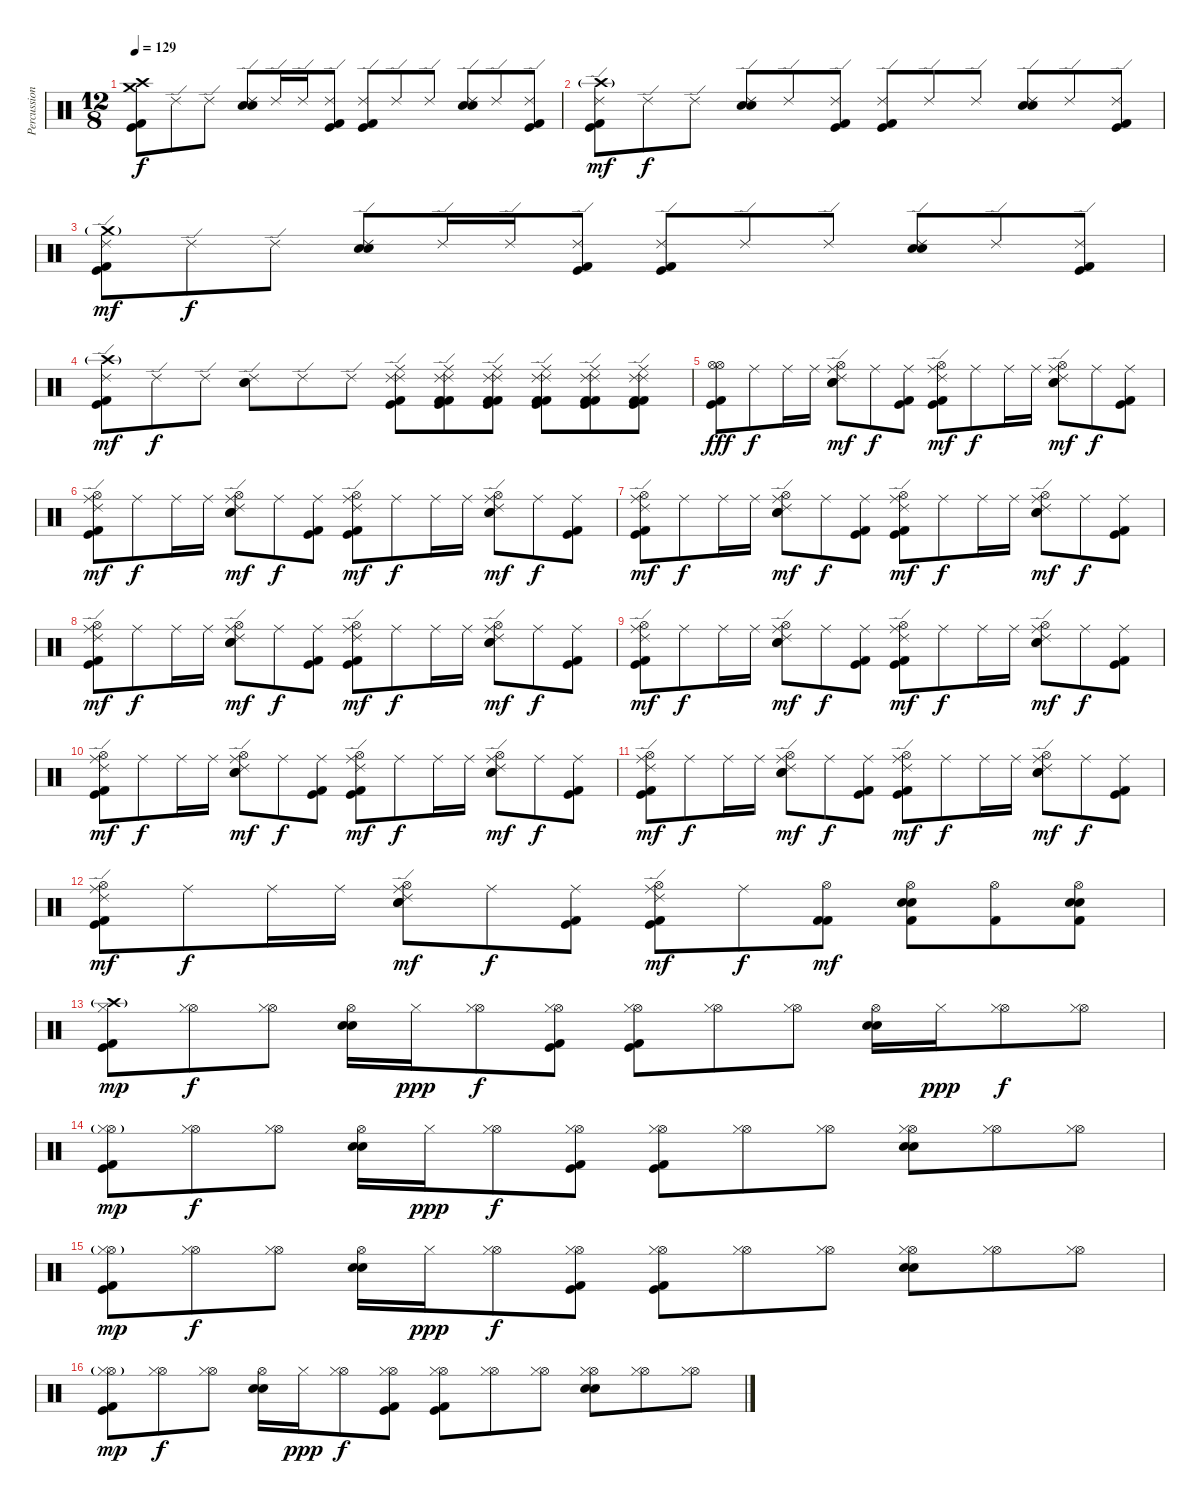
\track ("Percussion" "Percussion") {instrument percussion}
\staff {score}
\articulation defaults
\ts (12 8)
\tempo 129
\clef neutral
\ks c
("Crash high (hit)" "Crash medium (hit)" "Kick (hit)" "Kick (hit) 2").8{dy f} "Ride (edge) 2".8 "Ride (edge) 2".8 ("Ride (edge) 2" "Electric Snare (hit)" "Electric Snare (hit)").8 "Ride (edge) 2".16 "Ride (edge) 2".16 ("Ride (edge) 2" "Kick (hit)" "Kick (hit) 2").8 ("Ride (edge) 2" "Kick (hit)" "Kick (hit) 2").8 "Ride (edge) 2".8 "Ride (edge) 2".8 ("Ride (edge) 2" "Electric Snare (hit)" "Electric Snare (hit)").8 "Ride (edge) 2".8 ("Ride (edge) 2" "Kick (hit)" "Kick (hit) 2").8 |
("Ride (edge) 2" "Crash high (hit)"{g} "Kick (hit)" "Kick (hit) 2").8{dy mf} "Ride (edge) 2".8{dy f} "Ride (edge) 2".8 ("Ride (edge) 2" "Electric Snare (hit)" "Electric Snare (hit)").8 "Ride (edge) 2".8 ("Ride (edge) 2" "Kick (hit)" "Kick (hit) 2").8 ("Ride (edge) 2" "Kick (hit)" "Kick (hit) 2").8 "Ride (edge) 2".8 "Ride (edge) 2".8 ("Ride (edge) 2" "Electric Snare (hit)" "Electric Snare (hit)").8 "Ride (edge) 2".8 ("Ride (edge) 2" "Kick (hit)" "Kick (hit) 2").8 |
("Ride (edge) 2" "Crash medium (hit)"{g} "Kick (hit)" "Kick (hit) 2").8{dy mf} "Ride (edge) 2".8{dy f} "Ride (edge) 2".8 ("Ride (edge) 2" "Electric Snare (hit)" "Electric Snare (hit)").8 "Ride (edge) 2".16 "Ride (edge) 2".16 ("Ride (edge) 2" "Kick (hit)" "Kick (hit) 2").8 ("Ride (edge) 2" "Kick (hit)" "Kick (hit) 2").8 "Ride (edge) 2".8 "Ride (edge) 2".8 ("Ride (edge) 2" "Electric Snare (hit)" "Electric Snare (hit)").8 "Ride (edge) 2".8 ("Ride (edge) 2" "Kick (hit)" "Kick (hit) 2").8 |
("Ride (edge) 2" "Crash high (hit)"{g} "Kick (hit)" "Kick (hit) 2").8{dy mf} "Ride (edge) 2".8{dy f} "Ride (edge) 2".8 ("Ride (edge) 2" "Electric Snare (hit)" "Electric Snare (hit)").8 "Ride (edge) 2".8 "Ride (edge) 2".8 ("Ride (edge) 2" "Ride (edge) 2" "Ride (middle)" "Kick (hit)" "Kick (hit) 2").8 ("Ride (edge) 2" "Ride (edge) 2" "Ride (middle)" "Kick (hit)" "Kick (hit) 2" "Kick (hit) 2").8 ("Ride (edge) 2" "Ride (edge) 2" "Ride (middle)" "Kick (hit)" "Kick (hit) 2" "Kick (hit) 2").8 ("Ride (edge) 2" "Ride (edge) 2" "Ride (middle)" "Kick (hit)" "Kick (hit) 2" "Kick (hit) 2").8 ("Ride (edge) 2" "Ride (edge) 2" "Ride (middle)" "Kick (hit)" "Kick (hit) 2" "Kick (hit) 2").8 ("Ride (edge) 2" "Ride (edge) 2" "Ride (middle)" "Kick (hit)" "Kick (hit) 2" "Kick (hit) 2").8 |
("Hi-Hat (open)" "Hi-Hat (open)" "Kick (hit) 2" "Kick (hit)").8{dy fff} "Ride (middle)".8{dy f} "Ride (middle)".16 "Ride (middle)".16 ("Ride (edge) 2" "Ride (middle)" "Electric Snare (hit)" "Electric Snare (hit)" "Hi-Hat (open)").8{dy mf} "Ride (middle)".8{dy f} ("Ride (middle)" "Kick (hit) 2" "Kick (hit)").8 ("Ride (edge) 2" "Ride (middle)" "Hi-Hat (open)" "Kick (hit) 2" "Kick (hit)").8{dy mf} "Ride (middle)".8{dy f} "Ride (middle)".16 "Ride (middle)".16 ("Ride (edge) 2" "Ride (middle)" "Electric Snare (hit)" "Electric Snare (hit)" "Hi-Hat (open)").8{dy mf} "Ride (middle)".8{dy f} ("Ride (middle)" "Kick (hit) 2" "Kick (hit)").8 |
("Ride (edge) 2" "Ride (middle)" "Hi-Hat (open)" "Kick (hit) 2" "Kick (hit)").8{dy mf} "Ride (middle)".8{dy f} "Ride (middle)".16 "Ride (middle)".16 ("Ride (edge) 2" "Ride (middle)" "Electric Snare (hit)" "Electric Snare (hit)" "Hi-Hat (open)").8{dy mf} "Ride (middle)".8{dy f} ("Ride (middle)" "Kick (hit) 2" "Kick (hit)").8 ("Ride (edge) 2" "Ride (middle)" "Hi-Hat (open)" "Kick (hit) 2" "Kick (hit)").8{dy mf} "Ride (middle)".8{dy f} "Ride (middle)".16 "Ride (middle)".16 ("Ride (edge) 2" "Ride (middle)" "Electric Snare (hit)" "Electric Snare (hit)" "Hi-Hat (open)").8{dy mf} "Ride (middle)".8{dy f} ("Ride (middle)" "Kick (hit) 2" "Kick (hit)").8 |
("Ride (edge) 2" "Ride (middle)" "Hi-Hat (open)" "Kick (hit) 2" "Kick (hit)").8{dy mf} "Ride (middle)".8{dy f} "Ride (middle)".16 "Ride (middle)".16 ("Ride (edge) 2" "Ride (middle)" "Electric Snare (hit)" "Electric Snare (hit)" "Hi-Hat (open)").8{dy mf} "Ride (middle)".8{dy f} ("Ride (middle)" "Kick (hit) 2" "Kick (hit)").8 ("Ride (edge) 2" "Ride (middle)" "Hi-Hat (open)" "Kick (hit) 2" "Kick (hit)").8{dy mf} "Ride (middle)".8{dy f} "Ride (middle)".16 "Ride (middle)".16 ("Ride (edge) 2" "Ride (middle)" "Electric Snare (hit)" "Electric Snare (hit)" "Hi-Hat (open)").8{dy mf} "Ride (middle)".8{dy f} ("Ride (middle)" "Kick (hit) 2" "Kick (hit)").8 |
("Ride (edge) 2" "Ride (middle)" "Hi-Hat (open)" "Kick (hit) 2" "Kick (hit)").8{dy mf} "Ride (middle)".8{dy f} "Ride (middle)".16 "Ride (middle)".16 ("Ride (edge) 2" "Ride (middle)" "Electric Snare (hit)" "Electric Snare (hit)" "Hi-Hat (open)").8{dy mf} "Ride (middle)".8{dy f} ("Ride (middle)" "Kick (hit) 2" "Kick (hit)").8 ("Ride (edge) 2" "Ride (middle)" "Hi-Hat (open)" "Kick (hit) 2" "Kick (hit)").8{dy mf} "Ride (middle)".8{dy f} "Ride (middle)".16 "Ride (middle)".16 ("Ride (edge) 2" "Ride (middle)" "Electric Snare (hit)" "Electric Snare (hit)" "Hi-Hat (open)").8{dy mf} "Ride (middle)".8{dy f} ("Ride (middle)" "Kick (hit) 2" "Kick (hit)").8 |
("Ride (edge) 2" "Ride (middle)" "Hi-Hat (open)" "Kick (hit) 2" "Kick (hit)").8{dy mf} "Ride (middle)".8{dy f} "Ride (middle)".16 "Ride (middle)".16 ("Ride (edge) 2" "Ride (middle)" "Electric Snare (hit)" "Electric Snare (hit)" "Hi-Hat (open)").8{dy mf} "Ride (middle)".8{dy f} ("Ride (middle)" "Kick (hit) 2" "Kick (hit)").8 ("Ride (edge) 2" "Ride (middle)" "Hi-Hat (open)" "Kick (hit) 2" "Kick (hit)").8{dy mf} "Ride (middle)".8{dy f} "Ride (middle)".16 "Ride (middle)".16 ("Ride (edge) 2" "Ride (middle)" "Electric Snare (hit)" "Electric Snare (hit)" "Hi-Hat (open)").8{dy mf} "Ride (middle)".8{dy f} ("Ride (middle)" "Kick (hit) 2" "Kick (hit)").8 |
("Ride (edge) 2" "Ride (middle)" "Hi-Hat (open)" "Kick (hit) 2" "Kick (hit)").8{dy mf} "Ride (middle)".8{dy f} "Ride (middle)".16 "Ride (middle)".16 ("Ride (edge) 2" "Ride (middle)" "Electric Snare (hit)" "Electric Snare (hit)" "Hi-Hat (open)").8{dy mf} "Ride (middle)".8{dy f} ("Ride (middle)" "Kick (hit) 2" "Kick (hit)").8 ("Ride (edge) 2" "Ride (middle)" "Hi-Hat (open)" "Kick (hit) 2" "Kick (hit)").8{dy mf} "Ride (middle)".8{dy f} "Ride (middle)".16 "Ride (middle)".16 ("Ride (edge) 2" "Ride (middle)" "Electric Snare (hit)" "Electric Snare (hit)" "Hi-Hat (open)").8{dy mf} "Ride (middle)".8{dy f} ("Ride (middle)" "Kick (hit) 2" "Kick (hit)").8 |
("Ride (edge) 2" "Ride (middle)" "Hi-Hat (open)" "Kick (hit) 2" "Kick (hit)").8{dy mf} "Ride (middle)".8{dy f} "Ride (middle)".16 "Ride (middle)".16 ("Ride (edge) 2" "Ride (middle)" "Electric Snare (hit)" "Electric Snare (hit)" "Hi-Hat (open)").8{dy mf} "Ride (middle)".8{dy f} ("Ride (middle)" "Kick (hit) 2" "Kick (hit)").8 ("Ride (edge) 2" "Ride (middle)" "Hi-Hat (open)" "Kick (hit) 2" "Kick (hit)").8{dy mf} "Ride (middle)".8{dy f} "Ride (middle)".16 "Ride (middle)".16 ("Ride (edge) 2" "Ride (middle)" "Electric Snare (hit)" "Electric Snare (hit)" "Hi-Hat (open)").8{dy mf} "Ride (middle)".8{dy f} ("Ride (middle)" "Kick (hit) 2" "Kick (hit)").8 |
("Ride (edge) 2" "Ride (middle)" "Hi-Hat (open)" "Kick (hit) 2" "Kick (hit)").8{dy mf} "Ride (middle)".8{dy f} "Ride (middle)".16 "Ride (middle)".16 ("Ride (edge) 2" "Ride (middle)" "Electric Snare (hit)" "Electric Snare (hit)" "Hi-Hat (open)").8{dy mf} "Ride (middle)".8{dy f} ("Ride (middle)" "Kick (hit) 2" "Kick (hit)").8 ("Ride (edge) 2" "Ride (middle)" "Hi-Hat (open)" "Kick (hit) 2" "Kick (hit)").8{dy mf} "Ride (middle)".8{dy f} ("Hi-Hat (open)" "Kick (hit) 2" "Kick (hit) 2").8{dy mf} ("Hi-Hat (open)" "Electric Snare (hit)" "Electric Snare (hit)" "Kick (hit) 2").8 ("Hi-Hat (open)" "Kick (hit) 2").8 ("Hi-Hat (open)" "Electric Snare (hit)" "Electric Snare (hit)" "Kick (hit) 2").8 |
("Crash high (hit)"{g} "Hi-Hat (closed)" "Kick (hit) 2" "Kick (hit)").8{dy mp} ("Hi-Hat (open)" "Hi-Hat (closed)").8{dy f} ("Hi-Hat (open)" "Hi-Hat (closed)").8 ("Hi-Hat (open)" "Electric Snare (hit)" "Electric Snare (hit)").16 "Hi-Hat (closed)".16{dy ppp} ("Hi-Hat (open)" "Hi-Hat (closed)").8{dy f} ("Hi-Hat (open)" "Hi-Hat (closed)" "Kick (hit) 2" "Kick (hit)").8 ("Hi-Hat (open)" "Hi-Hat (closed)" "Kick (hit) 2" "Kick (hit)").8 ("Hi-Hat (open)" "Hi-Hat (closed)").8 ("Hi-Hat (open)" "Hi-Hat (closed)").8 ("Hi-Hat (open)" "Electric Snare (hit)" "Electric Snare (hit)").16 "Hi-Hat (closed)".16{dy ppp} ("Hi-Hat (open)" "Hi-Hat (closed)").8{dy f} ("Hi-Hat (open)" "Hi-Hat (closed)").8 |
("Hi-Hat (open)"{g} "Hi-Hat (closed)" "Kick (hit) 2" "Kick (hit)").8{dy mp} ("Hi-Hat (open)" "Hi-Hat (closed)").8{dy f} ("Hi-Hat (open)" "Hi-Hat (closed)").8 ("Hi-Hat (open)" "Electric Snare (hit)" "Electric Snare (hit)").16 "Hi-Hat (closed)".16{dy ppp} ("Hi-Hat (open)" "Hi-Hat (closed)").8{dy f} ("Hi-Hat (open)" "Hi-Hat (closed)" "Kick (hit) 2" "Kick (hit)").8 ("Hi-Hat (open)" "Hi-Hat (closed)" "Kick (hit) 2" "Kick (hit)").8 ("Hi-Hat (open)" "Hi-Hat (closed)").8 ("Hi-Hat (open)" "Hi-Hat (closed)").8 ("Hi-Hat (open)" "Hi-Hat (closed)" "Electric Snare (hit)" "Electric Snare (hit)").8 ("Hi-Hat (open)" "Hi-Hat (closed)").8 ("Hi-Hat (open)" "Hi-Hat (closed)").8 |
("Hi-Hat (open)"{g} "Hi-Hat (closed)" "Kick (hit) 2" "Kick (hit)").8{dy mp} ("Hi-Hat (open)" "Hi-Hat (closed)").8{dy f} ("Hi-Hat (open)" "Hi-Hat (closed)").8 ("Hi-Hat (open)" "Electric Snare (hit)" "Electric Snare (hit)").16 "Hi-Hat (closed)".16{dy ppp} ("Hi-Hat (open)" "Hi-Hat (closed)").8{dy f} ("Hi-Hat (open)" "Hi-Hat (closed)" "Kick (hit) 2" "Kick (hit)").8 ("Hi-Hat (open)" "Hi-Hat (closed)" "Kick (hit) 2" "Kick (hit)").8 ("Hi-Hat (open)" "Hi-Hat (closed)").8 ("Hi-Hat (open)" "Hi-Hat (closed)").8 ("Hi-Hat (open)" "Hi-Hat (closed)" "Electric Snare (hit)" "Electric Snare (hit)").8 ("Hi-Hat (open)" "Hi-Hat (closed)").8 ("Hi-Hat (open)" "Hi-Hat (closed)").8 |
("Hi-Hat (open)"{g} "Hi-Hat (closed)" "Kick (hit) 2" "Kick (hit)").8{dy mp} ("Hi-Hat (open)" "Hi-Hat (closed)").8{dy f} ("Hi-Hat (open)" "Hi-Hat (closed)").8 ("Hi-Hat (open)" "Electric Snare (hit)" "Electric Snare (hit)").16 "Hi-Hat (closed)".16{dy ppp} ("Hi-Hat (open)" "Hi-Hat (closed)").8{dy f} ("Hi-Hat (open)" "Hi-Hat (closed)" "Kick (hit) 2" "Kick (hit)").8 ("Hi-Hat (open)" "Hi-Hat (closed)" "Kick (hit) 2" "Kick (hit)").8 ("Hi-Hat (open)" "Hi-Hat (closed)").8 ("Hi-Hat (open)" "Hi-Hat (closed)").8 ("Hi-Hat (open)" "Hi-Hat (closed)" "Electric Snare (hit)" "Electric Snare (hit)").8 ("Hi-Hat (open)" "Hi-Hat (closed)").8 ("Hi-Hat (open)" "Hi-Hat (closed)").8
